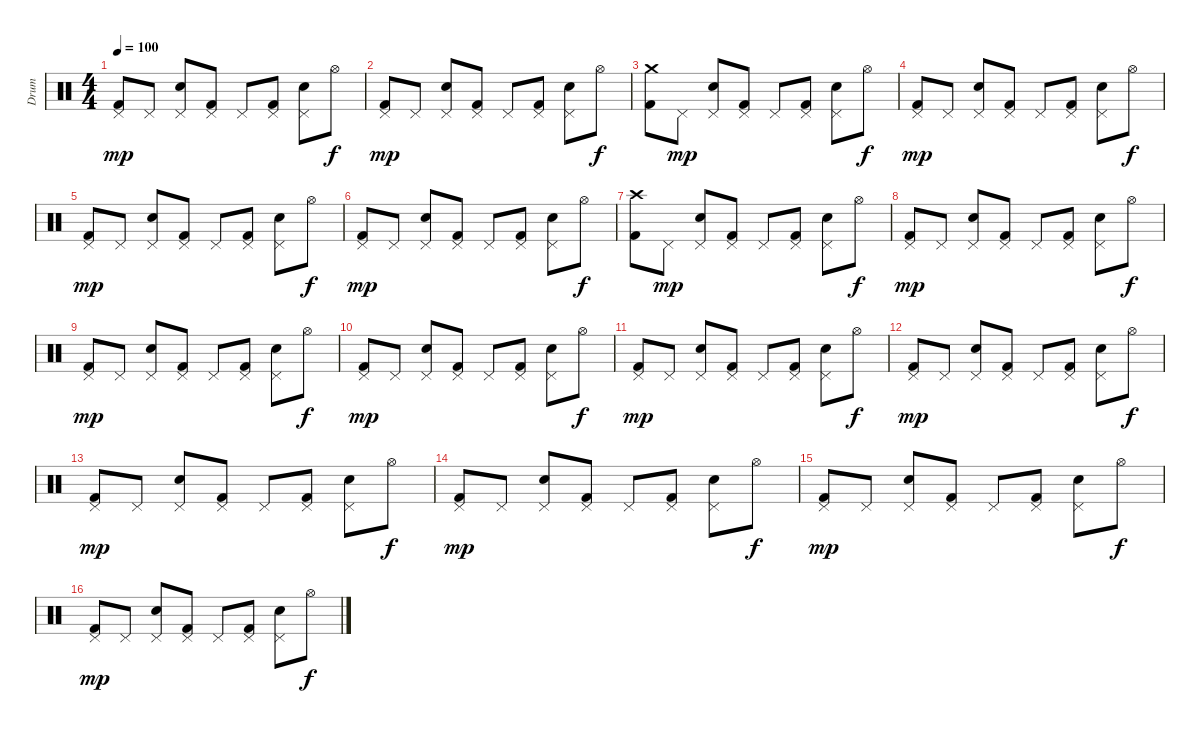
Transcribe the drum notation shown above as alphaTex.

\track ("Drum" "Drum") {instrument percussion}
\staff {score}
\articulation defaults
\ts (4 4)
\tempo 100
\clef neutral
\ks c
("Pedal Hi-Hat (hit)" "Kick (hit) 2").8{dy mp} "Pedal Hi-Hat (hit)".8 ("Pedal Hi-Hat (hit)" "Electric Snare (hit)").8 ("Pedal Hi-Hat (hit)" "Kick (hit) 2").8 "Pedal Hi-Hat (hit)".8 ("Pedal Hi-Hat (hit)" "Kick (hit) 2").8 ("Pedal Hi-Hat (hit)" "Electric Snare (hit)").8 "Hi-Hat (open)".8{dy f} |
("Pedal Hi-Hat (hit)" "Kick (hit) 2").8{dy mp} "Pedal Hi-Hat (hit)".8 ("Pedal Hi-Hat (hit)" "Electric Snare (hit)").8 ("Pedal Hi-Hat (hit)" "Kick (hit) 2").8 "Pedal Hi-Hat (hit)".8 ("Pedal Hi-Hat (hit)" "Kick (hit) 2").8 ("Pedal Hi-Hat (hit)" "Electric Snare (hit)").8 "Hi-Hat (open)".8{dy f} |
("Crash medium (hit)" "Kick (hit) 2").8 "Pedal Hi-Hat (hit)".8{dy mp} ("Pedal Hi-Hat (hit)" "Electric Snare (hit)").8 ("Pedal Hi-Hat (hit)" "Kick (hit) 2").8 "Pedal Hi-Hat (hit)".8 ("Pedal Hi-Hat (hit)" "Kick (hit) 2").8 ("Pedal Hi-Hat (hit)" "Electric Snare (hit)").8 "Hi-Hat (open)".8{dy f} |
("Pedal Hi-Hat (hit)" "Kick (hit) 2").8{dy mp} "Pedal Hi-Hat (hit)".8 ("Pedal Hi-Hat (hit)" "Electric Snare (hit)").8 ("Pedal Hi-Hat (hit)" "Kick (hit) 2").8 "Pedal Hi-Hat (hit)".8 ("Pedal Hi-Hat (hit)" "Kick (hit) 2").8 ("Pedal Hi-Hat (hit)" "Electric Snare (hit)").8 "Hi-Hat (open)".8{dy f} |
("Pedal Hi-Hat (hit)" "Kick (hit) 2").8{dy mp} "Pedal Hi-Hat (hit)".8 ("Pedal Hi-Hat (hit)" "Electric Snare (hit)").8 ("Pedal Hi-Hat (hit)" "Kick (hit) 2").8 "Pedal Hi-Hat (hit)".8 ("Pedal Hi-Hat (hit)" "Kick (hit) 2").8 ("Pedal Hi-Hat (hit)" "Electric Snare (hit)").8 "Hi-Hat (open)".8{dy f} |
("Pedal Hi-Hat (hit)" "Kick (hit) 2").8{dy mp} "Pedal Hi-Hat (hit)".8 ("Pedal Hi-Hat (hit)" "Electric Snare (hit)").8 ("Pedal Hi-Hat (hit)" "Kick (hit) 2").8 "Pedal Hi-Hat (hit)".8 ("Pedal Hi-Hat (hit)" "Kick (hit) 2").8 ("Pedal Hi-Hat (hit)" "Electric Snare (hit)").8 "Hi-Hat (open)".8{dy f} |
("Crash high (hit)" "Kick (hit) 2").8 "Pedal Hi-Hat (hit)".8{dy mp} ("Pedal Hi-Hat (hit)" "Electric Snare (hit)").8 ("Pedal Hi-Hat (hit)" "Kick (hit) 2").8 "Pedal Hi-Hat (hit)".8 ("Pedal Hi-Hat (hit)" "Kick (hit) 2").8 ("Pedal Hi-Hat (hit)" "Electric Snare (hit)").8 "Hi-Hat (open)".8{dy f} |
("Pedal Hi-Hat (hit)" "Kick (hit) 2").8{dy mp} "Pedal Hi-Hat (hit)".8 ("Pedal Hi-Hat (hit)" "Electric Snare (hit)").8 ("Pedal Hi-Hat (hit)" "Kick (hit) 2").8 "Pedal Hi-Hat (hit)".8 ("Pedal Hi-Hat (hit)" "Kick (hit) 2").8 ("Pedal Hi-Hat (hit)" "Electric Snare (hit)").8 "Hi-Hat (open)".8{dy f} |
("Pedal Hi-Hat (hit)" "Kick (hit) 2").8{dy mp} "Pedal Hi-Hat (hit)".8 ("Pedal Hi-Hat (hit)" "Electric Snare (hit)").8 ("Pedal Hi-Hat (hit)" "Kick (hit) 2").8 "Pedal Hi-Hat (hit)".8 ("Pedal Hi-Hat (hit)" "Kick (hit) 2").8 ("Pedal Hi-Hat (hit)" "Electric Snare (hit)").8 "Hi-Hat (open)".8{dy f} |
("Pedal Hi-Hat (hit)" "Kick (hit) 2").8{dy mp} "Pedal Hi-Hat (hit)".8 ("Pedal Hi-Hat (hit)" "Electric Snare (hit)").8 ("Pedal Hi-Hat (hit)" "Kick (hit) 2").8 "Pedal Hi-Hat (hit)".8 ("Pedal Hi-Hat (hit)" "Kick (hit) 2").8 ("Pedal Hi-Hat (hit)" "Electric Snare (hit)").8 "Hi-Hat (open)".8{dy f} |
("Pedal Hi-Hat (hit)" "Kick (hit) 2").8{dy mp} "Pedal Hi-Hat (hit)".8 ("Pedal Hi-Hat (hit)" "Electric Snare (hit)").8 ("Pedal Hi-Hat (hit)" "Kick (hit) 2").8 "Pedal Hi-Hat (hit)".8 ("Pedal Hi-Hat (hit)" "Kick (hit) 2").8 ("Pedal Hi-Hat (hit)" "Electric Snare (hit)").8 "Hi-Hat (open)".8{dy f} |
("Pedal Hi-Hat (hit)" "Kick (hit) 2").8{dy mp} "Pedal Hi-Hat (hit)".8 ("Pedal Hi-Hat (hit)" "Electric Snare (hit)").8 ("Pedal Hi-Hat (hit)" "Kick (hit) 2").8 "Pedal Hi-Hat (hit)".8 ("Pedal Hi-Hat (hit)" "Kick (hit) 2").8 ("Pedal Hi-Hat (hit)" "Electric Snare (hit)").8 "Hi-Hat (open)".8{dy f} |
("Pedal Hi-Hat (hit)" "Kick (hit) 2").8{dy mp} "Pedal Hi-Hat (hit)".8 ("Pedal Hi-Hat (hit)" "Electric Snare (hit)").8 ("Pedal Hi-Hat (hit)" "Kick (hit) 2").8 "Pedal Hi-Hat (hit)".8 ("Pedal Hi-Hat (hit)" "Kick (hit) 2").8 ("Pedal Hi-Hat (hit)" "Electric Snare (hit)").8 "Hi-Hat (open)".8{dy f} |
("Pedal Hi-Hat (hit)" "Kick (hit) 2").8{dy mp} "Pedal Hi-Hat (hit)".8 ("Pedal Hi-Hat (hit)" "Electric Snare (hit)").8 ("Pedal Hi-Hat (hit)" "Kick (hit) 2").8 "Pedal Hi-Hat (hit)".8 ("Pedal Hi-Hat (hit)" "Kick (hit) 2").8 ("Pedal Hi-Hat (hit)" "Electric Snare (hit)").8 "Hi-Hat (open)".8{dy f} |
("Pedal Hi-Hat (hit)" "Kick (hit) 2").8{dy mp} "Pedal Hi-Hat (hit)".8 ("Pedal Hi-Hat (hit)" "Electric Snare (hit)").8 ("Pedal Hi-Hat (hit)" "Kick (hit) 2").8 "Pedal Hi-Hat (hit)".8 ("Pedal Hi-Hat (hit)" "Kick (hit) 2").8 ("Pedal Hi-Hat (hit)" "Electric Snare (hit)").8 "Hi-Hat (open)".8{dy f} |
("Pedal Hi-Hat (hit)" "Kick (hit) 2").8{dy mp} "Pedal Hi-Hat (hit)".8 ("Pedal Hi-Hat (hit)" "Electric Snare (hit)").8 ("Pedal Hi-Hat (hit)" "Kick (hit) 2").8 "Pedal Hi-Hat (hit)".8 ("Pedal Hi-Hat (hit)" "Kick (hit) 2").8 ("Pedal Hi-Hat (hit)" "Electric Snare (hit)").8 "Hi-Hat (open)".8{dy f}
